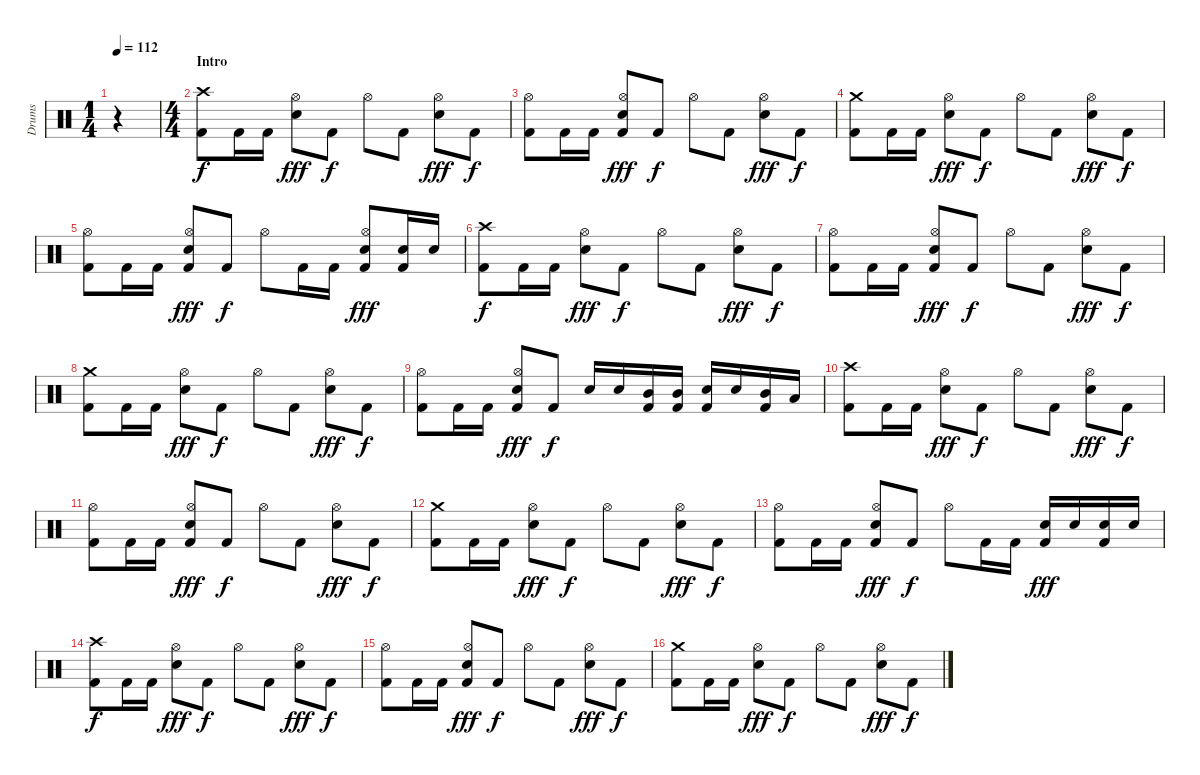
\track ("Drums" "Drums") {instrument percussion}
\staff {score}
\articulation defaults
\ts (1 4)
\tempo 112
\clef neutral
\ks c
r.4{dy f} |
\ts (4 4)
\section ("" "Intro")
("Crash high (hit)" "Kick (hit) 2").8 "Kick (hit) 2".16 "Kick (hit) 2".16 ("Hi-Hat (open)" "Snare (hit) 2").8{dy fff} "Kick (hit) 2".8{dy f} "Hi-Hat (open)".8 "Kick (hit) 2".8 ("Hi-Hat (open)" "Snare (hit) 2").8{dy fff} "Kick (hit) 2".8{dy f} |
("Hi-Hat (open)" "Kick (hit) 2").8 "Kick (hit) 2".16 "Kick (hit) 2".16 ("Hi-Hat (open)" "Snare (hit) 2" "Kick (hit) 2").8{dy fff} "Kick (hit) 2".8{dy f} "Hi-Hat (open)".8 "Kick (hit) 2".8 ("Hi-Hat (open)" "Snare (hit) 2").8{dy fff} "Kick (hit) 2".8{dy f} |
("Crash medium (hit)" "Kick (hit) 2").8 "Kick (hit) 2".16 "Kick (hit) 2".16 ("Hi-Hat (open)" "Snare (hit) 2").8{dy fff} "Kick (hit) 2".8{dy f} "Hi-Hat (open)".8 "Kick (hit) 2".8 ("Hi-Hat (open)" "Snare (hit) 2").8{dy fff} "Kick (hit) 2".8{dy f} |
("Hi-Hat (open)" "Kick (hit) 2").8 "Kick (hit) 2".16 "Kick (hit) 2".16 ("Hi-Hat (open)" "Snare (hit) 2" "Kick (hit) 2").8{dy fff} "Kick (hit) 2".8{dy f} "Hi-Hat (open)".8 "Kick (hit) 2".16 "Kick (hit) 2".16 ("Hi-Hat (open)" "Snare (hit) 2" "Kick (hit) 2").8{dy fff} ("Snare (hit) 2" "Kick (hit) 2").16 "Snare (hit) 2".16 |
("Crash high (hit)" "Kick (hit) 2").8{dy f} "Kick (hit) 2".16 "Kick (hit) 2".16 ("Hi-Hat (open)" "Snare (hit) 2").8{dy fff} "Kick (hit) 2".8{dy f} "Hi-Hat (open)".8 "Kick (hit) 2".8 ("Hi-Hat (open)" "Snare (hit) 2").8{dy fff} "Kick (hit) 2".8{dy f} |
("Hi-Hat (open)" "Kick (hit) 2").8 "Kick (hit) 2".16 "Kick (hit) 2".16 ("Hi-Hat (open)" "Snare (hit) 2" "Kick (hit) 2").8{dy fff} "Kick (hit) 2".8{dy f} "Hi-Hat (open)".8 "Kick (hit) 2".8 ("Hi-Hat (open)" "Snare (hit) 2").8{dy fff} "Kick (hit) 2".8{dy f} |
("Crash medium (hit)" "Kick (hit) 2").8 "Kick (hit) 2".16 "Kick (hit) 2".16 ("Hi-Hat (open)" "Snare (hit) 2").8{dy fff} "Kick (hit) 2".8{dy f} "Hi-Hat (open)".8 "Kick (hit) 2".8 ("Hi-Hat (open)" "Snare (hit) 2").8{dy fff} "Kick (hit) 2".8{dy f} |
("Hi-Hat (open)" "Kick (hit) 2").8 "Kick (hit) 2".16 "Kick (hit) 2".16 ("Hi-Hat (open)" "Snare (hit) 2" "Kick (hit) 2").8{dy fff} "Kick (hit) 2".8{dy f} "Snare (hit) 2".16 "Snare (hit) 2".16 ("Mid Tom (hit)" "Kick (hit) 2").16 ("Mid Tom (hit)" "Kick (hit) 2").16 ("Snare (hit) 2" "Kick (hit) 2").16 "Snare (hit) 2".16 ("Mid Tom (hit)" "Kick (hit) 2").16 "Low Tom (hit)".16 |
("Crash high (hit)" "Kick (hit) 2").8 "Kick (hit) 2".16 "Kick (hit) 2".16 ("Hi-Hat (open)" "Snare (hit) 2").8{dy fff} "Kick (hit) 2".8{dy f} "Hi-Hat (open)".8 "Kick (hit) 2".8 ("Hi-Hat (open)" "Snare (hit) 2").8{dy fff} "Kick (hit) 2".8{dy f} |
("Hi-Hat (open)" "Kick (hit) 2").8 "Kick (hit) 2".16 "Kick (hit) 2".16 ("Hi-Hat (open)" "Snare (hit) 2" "Kick (hit) 2").8{dy fff} "Kick (hit) 2".8{dy f} "Hi-Hat (open)".8 "Kick (hit) 2".8 ("Hi-Hat (open)" "Snare (hit) 2").8{dy fff} "Kick (hit) 2".8{dy f} |
("Crash medium (hit)" "Kick (hit) 2").8 "Kick (hit) 2".16 "Kick (hit) 2".16 ("Hi-Hat (open)" "Snare (hit) 2").8{dy fff} "Kick (hit) 2".8{dy f} "Hi-Hat (open)".8 "Kick (hit) 2".8 ("Hi-Hat (open)" "Snare (hit) 2").8{dy fff} "Kick (hit) 2".8{dy f} |
("Hi-Hat (open)" "Kick (hit) 2").8 "Kick (hit) 2".16 "Kick (hit) 2".16 ("Hi-Hat (open)" "Snare (hit) 2" "Kick (hit) 2").8{dy fff} "Kick (hit) 2".8{dy f} "Hi-Hat (open)".8 "Kick (hit) 2".16 "Kick (hit) 2".16 ("Snare (hit) 2" "Kick (hit) 2").16{dy fff} "Snare (hit) 2".16 ("Snare (hit) 2" "Kick (hit) 2").16 "Snare (hit) 2".16 |
("Crash high (hit)" "Kick (hit) 2").8{dy f} "Kick (hit) 2".16 "Kick (hit) 2".16 ("Hi-Hat (open)" "Snare (hit) 2").8{dy fff} "Kick (hit) 2".8{dy f} "Hi-Hat (open)".8 "Kick (hit) 2".8 ("Hi-Hat (open)" "Snare (hit) 2").8{dy fff} "Kick (hit) 2".8{dy f} |
("Hi-Hat (open)" "Kick (hit) 2").8 "Kick (hit) 2".16 "Kick (hit) 2".16 ("Hi-Hat (open)" "Snare (hit) 2" "Kick (hit) 2").8{dy fff} "Kick (hit) 2".8{dy f} "Hi-Hat (open)".8 "Kick (hit) 2".8 ("Hi-Hat (open)" "Snare (hit) 2").8{dy fff} "Kick (hit) 2".8{dy f} |
("Crash medium (hit)" "Kick (hit) 2").8 "Kick (hit) 2".16 "Kick (hit) 2".16 ("Hi-Hat (open)" "Snare (hit) 2").8{dy fff} "Kick (hit) 2".8{dy f} "Hi-Hat (open)".8 "Kick (hit) 2".8 ("Hi-Hat (open)" "Snare (hit) 2").8{dy fff} "Kick (hit) 2".8{dy f}
